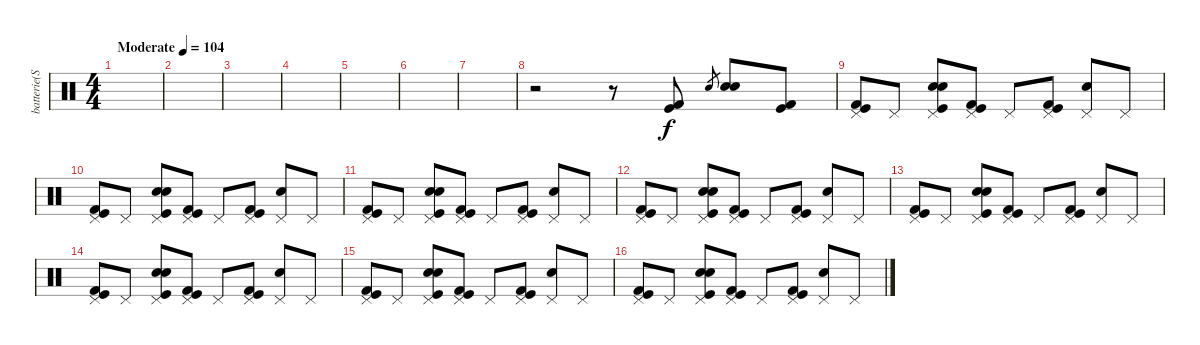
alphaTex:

\track ("batterie(Schemel)" "batterie(S") {instrument percussion}
\staff {score}
\articulation defaults
\ts (4 4)
\tempo (104 "Moderate")
\clef neutral
\ks c
|
|
|
|
|
|
|
r.2 r.8 ("Kick (hit) 2" "Kick (hit)").8 "Electric Snare (hit)"{sl}.8{gr} ("Electric Snare (hit)" "Snare (hit) 2").8 ("Kick (hit)" "Kick (hit) 2").8 |
("Pedal Hi-Hat (hit)" "Kick (hit) 2" "Kick (hit)").8 "Pedal Hi-Hat (hit)".8 ("Pedal Hi-Hat (hit)" "Electric Snare (hit)" "Snare (hit) 2" "Kick (hit)").8 ("Pedal Hi-Hat (hit)" "Kick (hit) 2" "Kick (hit)").8 "Pedal Hi-Hat (hit)".8 ("Pedal Hi-Hat (hit)" "Kick (hit) 2" "Kick (hit)").8 ("Pedal Hi-Hat (hit)" "Snare (hit) 2").8 "Pedal Hi-Hat (hit)".8 |
("Pedal Hi-Hat (hit)" "Kick (hit) 2" "Kick (hit)").8 "Pedal Hi-Hat (hit)".8 ("Pedal Hi-Hat (hit)" "Electric Snare (hit)" "Snare (hit) 2" "Kick (hit)").8 ("Pedal Hi-Hat (hit)" "Kick (hit) 2" "Kick (hit)").8 "Pedal Hi-Hat (hit)".8 ("Pedal Hi-Hat (hit)" "Kick (hit) 2" "Kick (hit)").8 ("Pedal Hi-Hat (hit)" "Snare (hit) 2").8 "Pedal Hi-Hat (hit)".8 |
("Pedal Hi-Hat (hit)" "Kick (hit) 2" "Kick (hit)").8 "Pedal Hi-Hat (hit)".8 ("Pedal Hi-Hat (hit)" "Electric Snare (hit)" "Snare (hit) 2" "Kick (hit)").8 ("Pedal Hi-Hat (hit)" "Kick (hit) 2" "Kick (hit)").8 "Pedal Hi-Hat (hit)".8 ("Pedal Hi-Hat (hit)" "Kick (hit) 2" "Kick (hit)").8 ("Pedal Hi-Hat (hit)" "Snare (hit) 2").8 "Pedal Hi-Hat (hit)".8 |
("Pedal Hi-Hat (hit)" "Kick (hit) 2" "Kick (hit)").8 "Pedal Hi-Hat (hit)".8 ("Pedal Hi-Hat (hit)" "Electric Snare (hit)" "Snare (hit) 2" "Kick (hit)").8 ("Pedal Hi-Hat (hit)" "Kick (hit) 2" "Kick (hit)").8 "Pedal Hi-Hat (hit)".8 ("Pedal Hi-Hat (hit)" "Kick (hit) 2" "Kick (hit)").8 ("Pedal Hi-Hat (hit)" "Snare (hit) 2").8 "Pedal Hi-Hat (hit)".8 |
("Pedal Hi-Hat (hit)" "Kick (hit) 2" "Kick (hit)").8 "Pedal Hi-Hat (hit)".8 ("Pedal Hi-Hat (hit)" "Electric Snare (hit)" "Snare (hit) 2" "Kick (hit)").8 ("Pedal Hi-Hat (hit)" "Kick (hit) 2" "Kick (hit)").8 "Pedal Hi-Hat (hit)".8 ("Pedal Hi-Hat (hit)" "Kick (hit) 2" "Kick (hit)").8 ("Pedal Hi-Hat (hit)" "Snare (hit) 2").8 "Pedal Hi-Hat (hit)".8 |
("Pedal Hi-Hat (hit)" "Kick (hit) 2" "Kick (hit)").8 "Pedal Hi-Hat (hit)".8 ("Pedal Hi-Hat (hit)" "Electric Snare (hit)" "Snare (hit) 2" "Kick (hit)").8 ("Pedal Hi-Hat (hit)" "Kick (hit) 2" "Kick (hit)").8 "Pedal Hi-Hat (hit)".8 ("Pedal Hi-Hat (hit)" "Kick (hit) 2" "Kick (hit)").8 ("Pedal Hi-Hat (hit)" "Snare (hit) 2").8 "Pedal Hi-Hat (hit)".8 |
("Pedal Hi-Hat (hit)" "Kick (hit) 2" "Kick (hit)").8 "Pedal Hi-Hat (hit)".8 ("Pedal Hi-Hat (hit)" "Electric Snare (hit)" "Snare (hit) 2" "Kick (hit)").8 ("Pedal Hi-Hat (hit)" "Kick (hit) 2" "Kick (hit)").8 "Pedal Hi-Hat (hit)".8 ("Pedal Hi-Hat (hit)" "Kick (hit) 2" "Kick (hit)").8 ("Pedal Hi-Hat (hit)" "Snare (hit) 2").8 "Pedal Hi-Hat (hit)".8 |
("Pedal Hi-Hat (hit)" "Kick (hit) 2" "Kick (hit)").8 "Pedal Hi-Hat (hit)".8 ("Pedal Hi-Hat (hit)" "Electric Snare (hit)" "Snare (hit) 2" "Kick (hit)").8 ("Pedal Hi-Hat (hit)" "Kick (hit) 2" "Kick (hit)").8 "Pedal Hi-Hat (hit)".8 ("Pedal Hi-Hat (hit)" "Kick (hit) 2" "Kick (hit)").8 ("Pedal Hi-Hat (hit)" "Snare (hit) 2").8 "Pedal Hi-Hat (hit)".8
